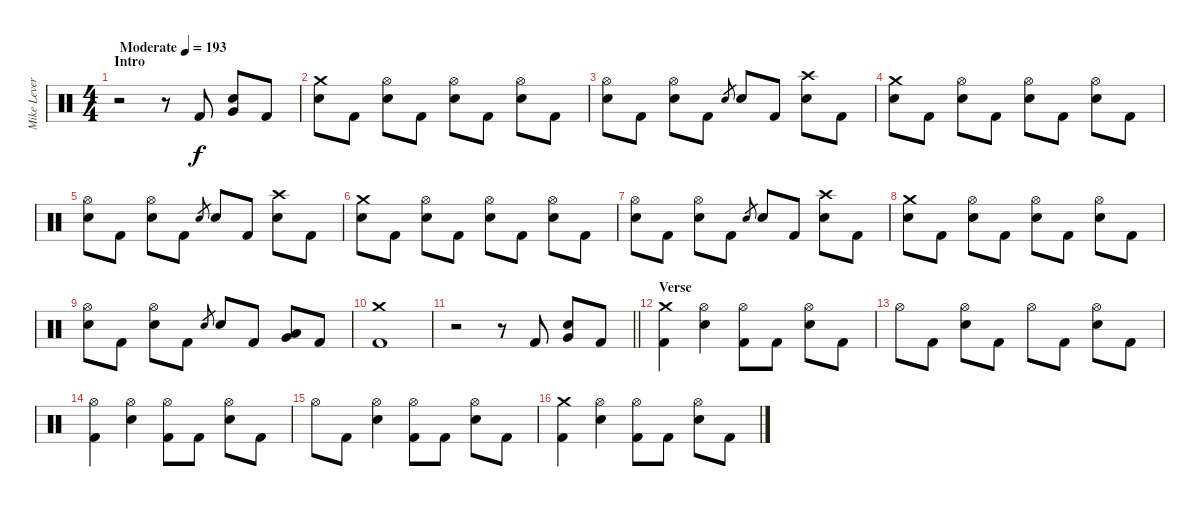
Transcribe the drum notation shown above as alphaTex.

\track ("Mike Leverence - Drums" "Mike Lever") {instrument percussion}
\staff {score}
\articulation defaults
\ts (4 4)
\section ("" "Intro")
\tempo (193 "Moderate")
\clef neutral
\ks c
r.2{dy f} r.8 "Kick (hit) 2".8 ("Very Low Tom (hit)" "Electric Snare (hit)").8 "Kick (hit) 2".8 |
("Crash medium (hit)" "Electric Snare (hit)").8 "Kick (hit) 2".8 ("Hi-Hat (open)" "Electric Snare (hit)").8 "Kick (hit) 2".8 ("Hi-Hat (open)" "Electric Snare (hit)").8 "Kick (hit) 2".8 ("Hi-Hat (open)" "Electric Snare (hit)").8 "Kick (hit) 2".8 |
("Hi-Hat (open)" "Electric Snare (hit)").8 "Kick (hit) 2".8 ("Hi-Hat (open)" "Electric Snare (hit)").8 "Kick (hit) 2".8 "Electric Snare (hit)".8{gr} "Electric Snare (hit)".8 "Kick (hit) 2".8 ("Crash high (hit)" "Electric Snare (hit)").8 "Kick (hit) 2".8 |
("Crash medium (hit)" "Electric Snare (hit)").8 "Kick (hit) 2".8 ("Hi-Hat (open)" "Electric Snare (hit)").8 "Kick (hit) 2".8 ("Hi-Hat (open)" "Electric Snare (hit)").8 "Kick (hit) 2".8 ("Hi-Hat (open)" "Electric Snare (hit)").8 "Kick (hit) 2".8 |
("Hi-Hat (open)" "Electric Snare (hit)").8 "Kick (hit) 2".8 ("Hi-Hat (open)" "Electric Snare (hit)").8 "Kick (hit) 2".8 "Electric Snare (hit)".8{gr} "Electric Snare (hit)".8 "Kick (hit) 2".8 ("Crash high (hit)" "Electric Snare (hit)").8 "Kick (hit) 2".8 |
("Crash medium (hit)" "Electric Snare (hit)").8 "Kick (hit) 2".8 ("Hi-Hat (open)" "Electric Snare (hit)").8 "Kick (hit) 2".8 ("Hi-Hat (open)" "Electric Snare (hit)").8 "Kick (hit) 2".8 ("Hi-Hat (open)" "Electric Snare (hit)").8 "Kick (hit) 2".8 |
("Hi-Hat (open)" "Electric Snare (hit)").8 "Kick (hit) 2".8 ("Hi-Hat (open)" "Electric Snare (hit)").8 "Kick (hit) 2".8 "Electric Snare (hit)".8{gr} "Electric Snare (hit)".8 "Kick (hit) 2".8 ("Crash high (hit)" "Electric Snare (hit)").8 "Kick (hit) 2".8 |
("Crash medium (hit)" "Electric Snare (hit)").8 "Kick (hit) 2".8 ("Hi-Hat (open)" "Electric Snare (hit)").8 "Kick (hit) 2".8 ("Hi-Hat (open)" "Electric Snare (hit)").8 "Kick (hit) 2".8 ("Hi-Hat (open)" "Electric Snare (hit)").8 "Kick (hit) 2".8 |
("Hi-Hat (open)" "Electric Snare (hit)").8 "Kick (hit) 2".8 ("Hi-Hat (open)" "Electric Snare (hit)").8 "Kick (hit) 2".8 "Electric Snare (hit)".8{gr} "Electric Snare (hit)".8 "Kick (hit) 2".8 ("Low Tom (hit)" "Very Low Tom (hit)").8 "Kick (hit) 2".8 |
("Crash medium (hit)" "Kick (hit) 2").1 |
\barLineRight lightlight
r.2 r.8 "Kick (hit) 2".8 ("Very Low Tom (hit)" "Electric Snare (hit)").8 "Kick (hit) 2".8 |
\section ("" "Verse")
("Crash medium (hit)" "Kick (hit) 2").4 ("Hi-Hat (open)" "Electric Snare (hit)").4 ("Hi-Hat (open)" "Kick (hit) 2").8 "Kick (hit) 2".8 ("Hi-Hat (open)" "Electric Snare (hit)").8 "Kick (hit) 2".8 |
"Hi-Hat (open)".8 "Kick (hit) 2".8 ("Hi-Hat (open)" "Electric Snare (hit)").8 "Kick (hit) 2".8 "Hi-Hat (open)".8 "Kick (hit) 2".8 ("Hi-Hat (open)" "Electric Snare (hit)").8 "Kick (hit) 2".8 |
("Hi-Hat (open)" "Kick (hit) 2").4 ("Hi-Hat (open)" "Electric Snare (hit)").4 ("Hi-Hat (open)" "Kick (hit) 2").8 "Kick (hit) 2".8 ("Hi-Hat (open)" "Electric Snare (hit)").8 "Kick (hit) 2".8 |
"Hi-Hat (open)".8 "Kick (hit) 2".8 ("Hi-Hat (open)" "Electric Snare (hit)").4 ("Hi-Hat (open)" "Kick (hit) 2").8 "Kick (hit) 2".8 ("Hi-Hat (open)" "Electric Snare (hit)").8 "Kick (hit) 2".8 |
("Crash medium (hit)" "Kick (hit) 2").4 ("Hi-Hat (open)" "Electric Snare (hit)").4 ("Hi-Hat (open)" "Kick (hit) 2").8 "Kick (hit) 2".8 ("Hi-Hat (open)" "Electric Snare (hit)").8 "Kick (hit) 2".8
